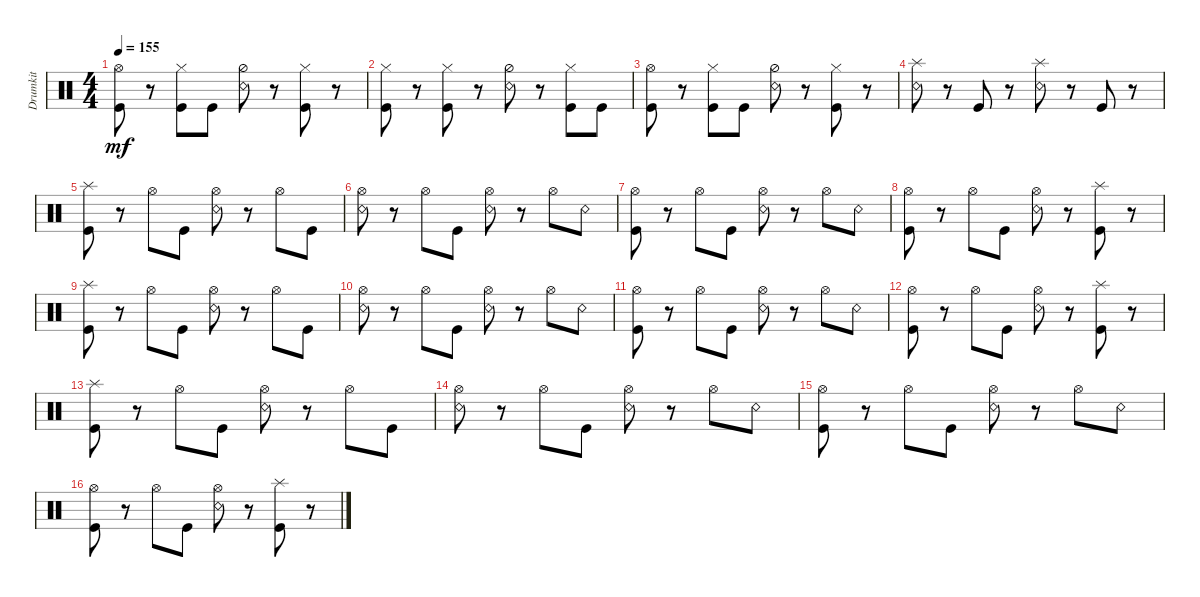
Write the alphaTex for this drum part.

\track ("Drumkit" "Drumkit") {instrument percussion}
\staff {score}
\articulation defaults
\ts (4 4)
\tempo 155
\clef neutral
\ks c
("Kick (hit)" "Hi-Hat (open)").8{dy mf} r.8 ("Kick (hit)" "Hi-Hat (closed)").8 "Kick (hit)".8 ("Snare (rim shot)" "Hi-Hat (half)").8 r.8 ("Kick (hit)" "Hi-Hat (closed)").8 r.8 |
("Kick (hit)" "Hi-Hat (closed)").8 r.8 ("Kick (hit)" "Hi-Hat (closed)").8 r.8 ("Snare (rim shot)" "Hi-Hat (half)").8 r.8 ("Kick (hit)" "Hi-Hat (closed)").8 "Kick (hit)".8 |
("Kick (hit)" "Hi-Hat (open)").8 r.8 ("Kick (hit)" "Hi-Hat (closed)").8 "Kick (hit)".8 ("Snare (rim shot)" "Hi-Hat (half)").8 r.8 ("Kick (hit)" "Hi-Hat (closed)").8 r.8 |
("Snare (rim shot)" "Splash (hit)").8 r.8 "Kick (hit)".8 r.8 ("Snare (rim shot)" "Splash (hit)").8 r.8 "Kick (hit)".8 r.8 |
("Kick (hit)" "Splash (hit)").8 r.8 "Hi-Hat (open)".8 "Kick (hit)".8 ("Snare (rim shot)" "Hi-Hat (open)").8 r.8 "Hi-Hat (open)".8 "Kick (hit)".8 |
("Snare (rim shot)" "Hi-Hat (open)").8 r.8 "Hi-Hat (open)".8 "Kick (hit)".8 ("Hi-Hat (open)" "Snare (rim shot)").8 r.8 "Hi-Hat (open)".8 "Snare (rim shot)".8 |
("Hi-Hat (open)" "Kick (hit)").8 r.8 "Hi-Hat (open)".8 "Kick (hit)".8 ("Hi-Hat (open)" "Snare (rim shot)").8 r.8 "Hi-Hat (open)".8 "Snare (rim shot)".8 |
("Kick (hit)" "Hi-Hat (open)").8 r.8 "Hi-Hat (open)".8 "Kick (hit)".8 ("Snare (rim shot)" "Hi-Hat (open)").8 r.8 ("Kick (hit)" "Splash (hit)").8 r.8 |
("Kick (hit)" "Splash (hit)").8 r.8 "Hi-Hat (open)".8 "Kick (hit)".8 ("Snare (rim shot)" "Hi-Hat (open)").8 r.8 "Hi-Hat (open)".8 "Kick (hit)".8 |
("Snare (rim shot)" "Hi-Hat (open)").8 r.8 "Hi-Hat (open)".8 "Kick (hit)".8 ("Hi-Hat (open)" "Snare (rim shot)").8 r.8 "Hi-Hat (open)".8 "Snare (rim shot)".8 |
("Hi-Hat (open)" "Kick (hit)").8 r.8 "Hi-Hat (open)".8 "Kick (hit)".8 ("Hi-Hat (open)" "Snare (rim shot)").8 r.8 "Hi-Hat (open)".8 "Snare (rim shot)".8 |
("Kick (hit)" "Hi-Hat (open)").8 r.8 "Hi-Hat (open)".8 "Kick (hit)".8 ("Snare (rim shot)" "Hi-Hat (open)").8 r.8 ("Kick (hit)" "Splash (hit)").8 r.8 |
("Kick (hit)" "Splash (hit)").8 r.8 "Hi-Hat (open)".8 "Kick (hit)".8 ("Snare (rim shot)" "Hi-Hat (open)").8 r.8 "Hi-Hat (open)".8 "Kick (hit)".8 |
("Snare (rim shot)" "Hi-Hat (open)").8 r.8 "Hi-Hat (open)".8 "Kick (hit)".8 ("Hi-Hat (open)" "Snare (rim shot)").8 r.8 "Hi-Hat (open)".8 "Snare (rim shot)".8 |
("Hi-Hat (open)" "Kick (hit)").8 r.8 "Hi-Hat (open)".8 "Kick (hit)".8 ("Hi-Hat (open)" "Snare (rim shot)").8 r.8 "Hi-Hat (open)".8 "Snare (rim shot)".8 |
("Kick (hit)" "Hi-Hat (open)").8 r.8 "Hi-Hat (open)".8 "Kick (hit)".8 ("Snare (rim shot)" "Hi-Hat (open)").8 r.8 ("Kick (hit)" "Splash (hit)").8 r.8
